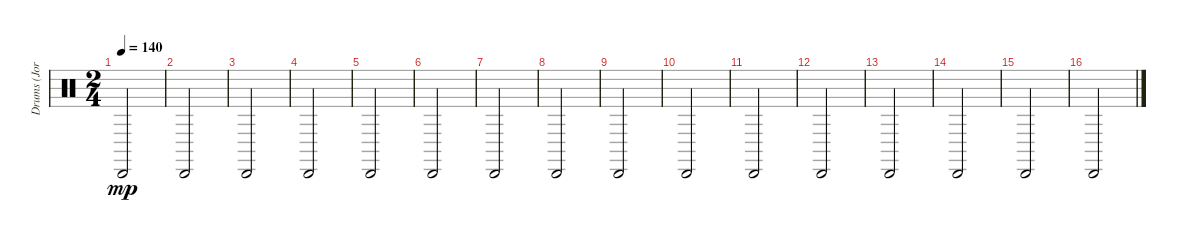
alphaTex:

\track ("Drums (Jordan Hastings)" "Drums (Jor") {instrument percussion}
\staff {score}
\articulation defaults
\ts (2 4)
\tempo 140
\clef neutral
\ks c "Cabasa (hit)".2{dy mp}
|
"Cabasa (hit)".2 |
"Cabasa (hit)".2 |
"Cabasa (hit)".2 |
"Cabasa (hit)".2 |
"Cabasa (hit)".2 |
"Cabasa (hit)".2 |
"Cabasa (hit)".2 |
"Cabasa (hit)".2 |
"Cabasa (hit)".2 |
"Cabasa (hit)".2 |
"Cabasa (hit)".2 |
"Cabasa (hit)".2 |
"Cabasa (hit)".2 |
"Cabasa (hit)".2 |
"Cabasa (hit)".2
